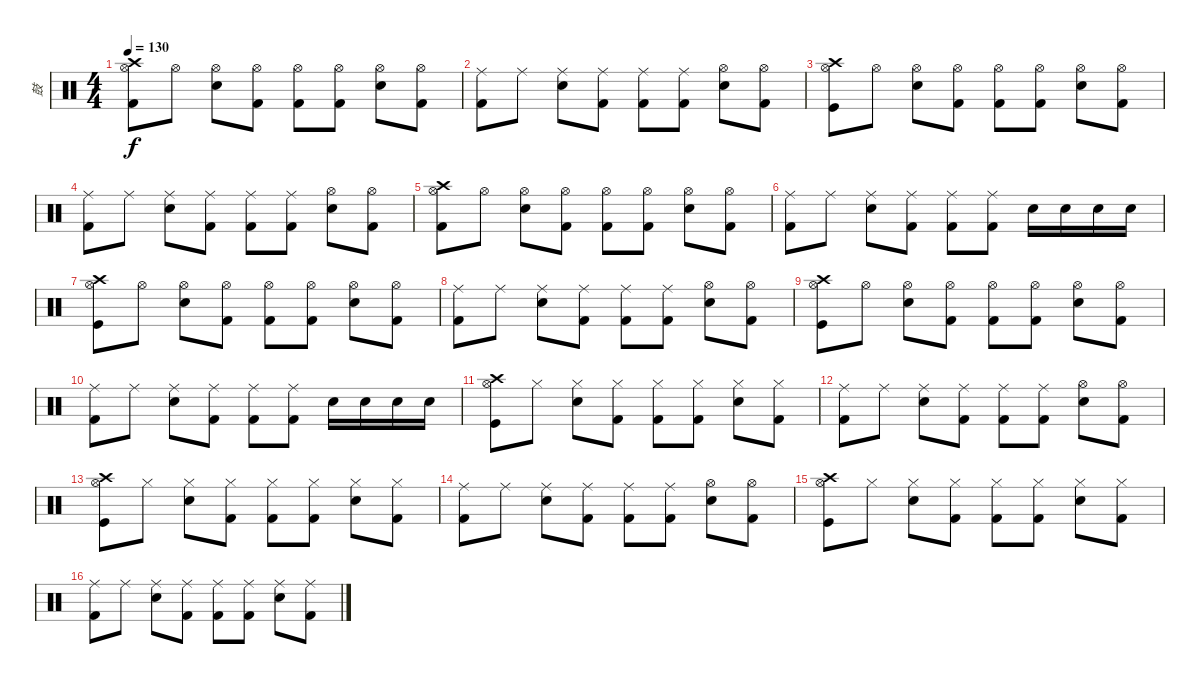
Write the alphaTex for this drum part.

\track ("鼓" "鼓") {instrument percussion}
\staff {score}
\articulation defaults
\ts (4 4)
\tempo 130
\clef neutral
\ks c
("Hi-Hat (open)" "Crash high (hit)" "Kick (hit) 2").8{dy f} "Hi-Hat (open)".8 ("Hi-Hat (open)" "Electric Snare (hit)").8 ("Hi-Hat (open)" "Kick (hit) 2").8 ("Hi-Hat (open)" "Kick (hit) 2").8 ("Hi-Hat (open)" "Kick (hit) 2").8 ("Hi-Hat (open)" "Electric Snare (hit)").8 ("Hi-Hat (open)" "Kick (hit) 2").8 |
("Ride (middle)" "Kick (hit) 2").8 "Ride (middle)".8 ("Ride (middle)" "Electric Snare (hit)").8 ("Ride (middle)" "Kick (hit) 2").8 ("Ride (middle)" "Kick (hit) 2").8 ("Ride (middle)" "Kick (hit) 2").8 ("Hi-Hat (open)" "Electric Snare (hit)").8 ("Hi-Hat (open)" "Kick (hit) 2").8 |
("Hi-Hat (open)" "Crash high (hit)" "Kick (hit)").8 "Hi-Hat (open)".8 ("Hi-Hat (open)" "Electric Snare (hit)").8 ("Hi-Hat (open)" "Kick (hit) 2").8 ("Hi-Hat (open)" "Kick (hit) 2").8 ("Hi-Hat (open)" "Kick (hit) 2").8 ("Hi-Hat (open)" "Electric Snare (hit)").8 ("Hi-Hat (open)" "Kick (hit) 2").8 |
("Ride (middle)" "Kick (hit) 2").8 "Ride (middle)".8 ("Ride (middle)" "Electric Snare (hit)").8 ("Ride (middle)" "Kick (hit) 2").8 ("Ride (middle)" "Kick (hit) 2").8 ("Ride (middle)" "Kick (hit) 2").8 ("Hi-Hat (open)" "Electric Snare (hit)").8 ("Hi-Hat (open)" "Kick (hit) 2").8 |
("Hi-Hat (open)" "Crash high (hit)" "Kick (hit) 2").8 "Hi-Hat (open)".8 ("Hi-Hat (open)" "Electric Snare (hit)").8 ("Hi-Hat (open)" "Kick (hit) 2").8 ("Hi-Hat (open)" "Kick (hit) 2").8 ("Hi-Hat (open)" "Kick (hit) 2").8 ("Hi-Hat (open)" "Electric Snare (hit)").8 ("Hi-Hat (open)" "Kick (hit) 2").8 |
("Ride (middle)" "Kick (hit) 2").8 "Ride (middle)".8 ("Ride (middle)" "Electric Snare (hit)").8 ("Ride (middle)" "Kick (hit) 2").8 ("Ride (middle)" "Kick (hit) 2").8 ("Ride (middle)" "Kick (hit) 2").8 "Electric Snare (hit)".16 "Electric Snare (hit)".16 "Electric Snare (hit)".16 "Electric Snare (hit)".16 |
("Hi-Hat (open)" "Crash high (hit)" "Kick (hit)").8 "Hi-Hat (open)".8 ("Hi-Hat (open)" "Electric Snare (hit)").8 ("Hi-Hat (open)" "Kick (hit) 2").8 ("Hi-Hat (open)" "Kick (hit) 2").8 ("Hi-Hat (open)" "Kick (hit) 2").8 ("Hi-Hat (open)" "Electric Snare (hit)").8 ("Hi-Hat (open)" "Kick (hit) 2").8 |
("Ride (middle)" "Kick (hit) 2").8 "Ride (middle)".8 ("Ride (middle)" "Electric Snare (hit)").8 ("Ride (middle)" "Kick (hit) 2").8 ("Ride (middle)" "Kick (hit) 2").8 ("Ride (middle)" "Kick (hit) 2").8 ("Hi-Hat (open)" "Electric Snare (hit)").8 ("Hi-Hat (open)" "Kick (hit) 2").8 |
("Hi-Hat (open)" "Crash high (hit)" "Kick (hit)").8 "Hi-Hat (open)".8 ("Hi-Hat (open)" "Electric Snare (hit)").8 ("Hi-Hat (open)" "Kick (hit) 2").8 ("Hi-Hat (open)" "Kick (hit) 2").8 ("Hi-Hat (open)" "Kick (hit) 2").8 ("Hi-Hat (open)" "Electric Snare (hit)").8 ("Hi-Hat (open)" "Kick (hit) 2").8 |
("Ride (middle)" "Kick (hit) 2").8 "Ride (middle)".8 ("Ride (middle)" "Electric Snare (hit)").8 ("Ride (middle)" "Kick (hit) 2").8 ("Ride (middle)" "Kick (hit) 2").8 ("Ride (middle)" "Kick (hit) 2").8 "Electric Snare (hit)".16 "Electric Snare (hit)".16 "Electric Snare (hit)".16 "Electric Snare (hit)".16 |
("Hi-Hat (open)" "Crash high (hit)" "Kick (hit)").8 "Hi-Hat (closed)".8 ("Hi-Hat (closed)" "Electric Snare (hit)").8 ("Hi-Hat (closed)" "Kick (hit) 2").8 ("Hi-Hat (closed)" "Kick (hit) 2").8 ("Hi-Hat (closed)" "Kick (hit) 2").8 ("Hi-Hat (closed)" "Electric Snare (hit)").8 ("Hi-Hat (closed)" "Kick (hit) 2").8 |
("Ride (middle)" "Kick (hit) 2").8 "Ride (middle)".8 ("Ride (middle)" "Electric Snare (hit)").8 ("Ride (middle)" "Kick (hit) 2").8 ("Ride (middle)" "Kick (hit) 2").8 ("Ride (middle)" "Kick (hit) 2").8 ("Hi-Hat (open)" "Electric Snare (hit)").8 ("Hi-Hat (open)" "Kick (hit) 2").8 |
("Hi-Hat (open)" "Crash high (hit)" "Kick (hit)").8 "Hi-Hat (closed)".8 ("Hi-Hat (closed)" "Electric Snare (hit)").8 ("Hi-Hat (closed)" "Kick (hit) 2").8 ("Hi-Hat (closed)" "Kick (hit) 2").8 ("Hi-Hat (closed)" "Kick (hit) 2").8 ("Hi-Hat (closed)" "Electric Snare (hit)").8 ("Hi-Hat (closed)" "Kick (hit) 2").8 |
("Ride (middle)" "Kick (hit) 2").8 "Ride (middle)".8 ("Ride (middle)" "Electric Snare (hit)").8 ("Ride (middle)" "Kick (hit) 2").8 ("Ride (middle)" "Kick (hit) 2").8 ("Ride (middle)" "Kick (hit) 2").8 ("Hi-Hat (open)" "Electric Snare (hit)").8 ("Hi-Hat (open)" "Kick (hit) 2").8 |
("Hi-Hat (open)" "Crash high (hit)" "Kick (hit)").8 "Hi-Hat (closed)".8 ("Hi-Hat (closed)" "Electric Snare (hit)").8 ("Hi-Hat (closed)" "Kick (hit) 2").8 ("Hi-Hat (closed)" "Kick (hit) 2").8 ("Hi-Hat (closed)" "Kick (hit) 2").8 ("Hi-Hat (closed)" "Electric Snare (hit)").8 ("Hi-Hat (closed)" "Kick (hit) 2").8 |
("Ride (middle)" "Kick (hit) 2").8 "Ride (middle)".8 ("Ride (middle)" "Electric Snare (hit)").8 ("Ride (middle)" "Kick (hit) 2").8 ("Ride (middle)" "Kick (hit) 2").8 ("Ride (middle)" "Kick (hit) 2").8 ("Ride (middle)" "Electric Snare (hit)").8 ("Ride (middle)" "Kick (hit) 2").8
